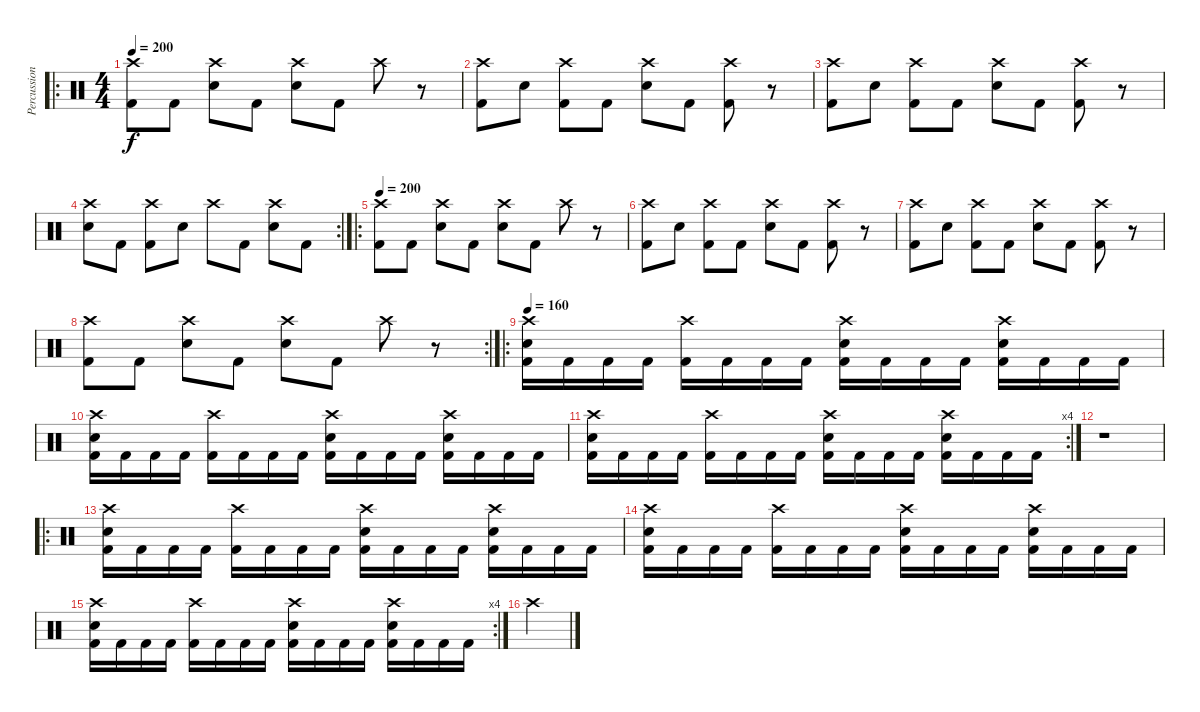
\track ("Percussion" "Percussion") {instrument percussion}
\staff {score}
\articulation defaults
\ro
\ts (4 4)
\tempo 200
\clef neutral
\ks c
("Crash high (hit)" "Kick (hit) 2").8{dy f} "Kick (hit) 2".8 ("Crash high (hit)" "Electric Snare (hit)").8 "Kick (hit) 2".8 ("Crash high (hit)" "Electric Snare (hit)").8 "Kick (hit) 2".8 "Crash high (hit)".8 r.8 |
("Crash high (hit)" "Kick (hit) 2").8 "Electric Snare (hit)".8 ("Crash high (hit)" "Kick (hit) 2").8 "Kick (hit) 2".8 ("Crash high (hit)" "Electric Snare (hit)").8 "Kick (hit) 2".8 ("Crash high (hit)" "Kick (hit) 2").8 r.8 |
("Crash high (hit)" "Kick (hit) 2").8 "Electric Snare (hit)".8 ("Crash high (hit)" "Kick (hit) 2").8 "Kick (hit) 2".8 ("Crash high (hit)" "Electric Snare (hit)").8 "Kick (hit) 2".8 ("Crash high (hit)" "Kick (hit) 2").8 r.8 |
\rc 2
("Crash high (hit)" "Electric Snare (hit)").8 "Kick (hit) 2".8 ("Crash high (hit)" "Kick (hit) 2").8 "Electric Snare (hit)".8 "Crash high (hit)".8 "Kick (hit) 2".8 ("Crash high (hit)" "Electric Snare (hit)").8 "Kick (hit) 2".8 |
\ro
\tempo 200
("Crash high (hit)" "Kick (hit) 2").8 "Kick (hit) 2".8 ("Crash high (hit)" "Electric Snare (hit)").8 "Kick (hit) 2".8 ("Crash high (hit)" "Electric Snare (hit)").8 "Kick (hit) 2".8 "Crash high (hit)".8 r.8 |
("Crash high (hit)" "Kick (hit) 2").8 "Electric Snare (hit)".8 ("Crash high (hit)" "Kick (hit) 2").8 "Kick (hit) 2".8 ("Crash high (hit)" "Electric Snare (hit)").8 "Kick (hit) 2".8 ("Crash high (hit)" "Kick (hit) 2").8 r.8 |
("Crash high (hit)" "Kick (hit) 2").8 "Electric Snare (hit)".8 ("Crash high (hit)" "Kick (hit) 2").8 "Kick (hit) 2".8 ("Crash high (hit)" "Electric Snare (hit)").8 "Kick (hit) 2".8 ("Crash high (hit)" "Kick (hit) 2").8 r.8 |
\rc 2
("Crash high (hit)" "Kick (hit) 2").8 "Kick (hit) 2".8 ("Crash high (hit)" "Electric Snare (hit)").8 "Kick (hit) 2".8 ("Crash high (hit)" "Electric Snare (hit)").8 "Kick (hit) 2".8 "Crash high (hit)".8 r.8 |
\ro
\tempo 160
("Crash high (hit)" "Electric Snare (hit)" "Kick (hit) 2").16 "Kick (hit) 2".16 "Kick (hit) 2".16 "Kick (hit) 2".16 ("Crash high (hit)" "Kick (hit) 2").16 "Kick (hit) 2".16 "Kick (hit) 2".16 "Kick (hit) 2".16 ("Crash high (hit)" "Electric Snare (hit)" "Kick (hit) 2").16 "Kick (hit) 2".16 "Kick (hit) 2".16 "Kick (hit) 2".16 ("Crash high (hit)" "Electric Snare (hit)" "Kick (hit) 2").16 "Kick (hit) 2".16 "Kick (hit) 2".16 "Kick (hit) 2".16 |
("Crash high (hit)" "Electric Snare (hit)" "Kick (hit) 2").16 "Kick (hit) 2".16 "Kick (hit) 2".16 "Kick (hit) 2".16 ("Crash high (hit)" "Kick (hit) 2").16 "Kick (hit) 2".16 "Kick (hit) 2".16 "Kick (hit) 2".16 ("Crash high (hit)" "Electric Snare (hit)" "Kick (hit) 2").16 "Kick (hit) 2".16 "Kick (hit) 2".16 "Kick (hit) 2".16 ("Crash high (hit)" "Electric Snare (hit)" "Kick (hit) 2").16 "Kick (hit) 2".16 "Kick (hit) 2".16 "Kick (hit) 2".16 |
\rc 4
("Crash high (hit)" "Electric Snare (hit)" "Kick (hit) 2").16 "Kick (hit) 2".16 "Kick (hit) 2".16 "Kick (hit) 2".16 ("Crash high (hit)" "Kick (hit) 2").16 "Kick (hit) 2".16 "Kick (hit) 2".16 "Kick (hit) 2".16 ("Crash high (hit)" "Electric Snare (hit)" "Kick (hit) 2").16 "Kick (hit) 2".16 "Kick (hit) 2".16 "Kick (hit) 2".16 ("Crash high (hit)" "Electric Snare (hit)" "Kick (hit) 2").16 "Kick (hit) 2".16 "Kick (hit) 2".16 "Kick (hit) 2".16 |
r.1 |
\ro
("Crash high (hit)" "Electric Snare (hit)" "Kick (hit) 2").16 "Kick (hit) 2".16 "Kick (hit) 2".16 "Kick (hit) 2".16 ("Crash high (hit)" "Kick (hit) 2").16 "Kick (hit) 2".16 "Kick (hit) 2".16 "Kick (hit) 2".16 ("Crash high (hit)" "Electric Snare (hit)" "Kick (hit) 2").16 "Kick (hit) 2".16 "Kick (hit) 2".16 "Kick (hit) 2".16 ("Crash high (hit)" "Electric Snare (hit)" "Kick (hit) 2").16 "Kick (hit) 2".16 "Kick (hit) 2".16 "Kick (hit) 2".16 |
("Crash high (hit)" "Electric Snare (hit)" "Kick (hit) 2").16 "Kick (hit) 2".16 "Kick (hit) 2".16 "Kick (hit) 2".16 ("Crash high (hit)" "Kick (hit) 2").16 "Kick (hit) 2".16 "Kick (hit) 2".16 "Kick (hit) 2".16 ("Crash high (hit)" "Electric Snare (hit)" "Kick (hit) 2").16 "Kick (hit) 2".16 "Kick (hit) 2".16 "Kick (hit) 2".16 ("Crash high (hit)" "Electric Snare (hit)" "Kick (hit) 2").16 "Kick (hit) 2".16 "Kick (hit) 2".16 "Kick (hit) 2".16 |
\rc 4
("Crash high (hit)" "Electric Snare (hit)" "Kick (hit) 2").16 "Kick (hit) 2".16 "Kick (hit) 2".16 "Kick (hit) 2".16 ("Crash high (hit)" "Kick (hit) 2").16 "Kick (hit) 2".16 "Kick (hit) 2".16 "Kick (hit) 2".16 ("Crash high (hit)" "Electric Snare (hit)" "Kick (hit) 2").16 "Kick (hit) 2".16 "Kick (hit) 2".16 "Kick (hit) 2".16 ("Crash high (hit)" "Electric Snare (hit)" "Kick (hit) 2").16 "Kick (hit) 2".16 "Kick (hit) 2".16 "Kick (hit) 2".16 |
"Crash high (hit)".4
